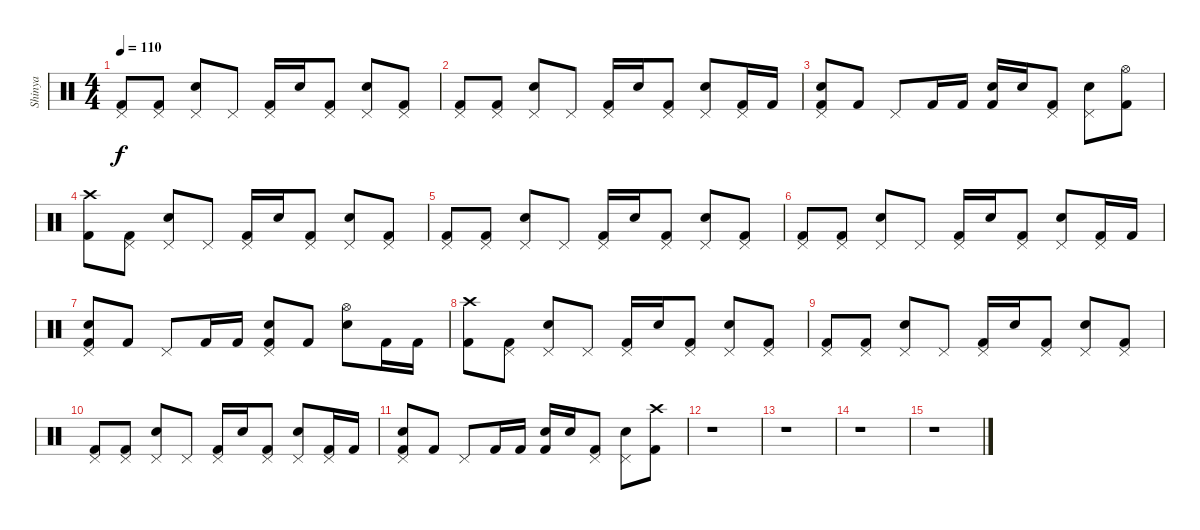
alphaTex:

\track ("Shinya" "Shinya") {instrument percussion}
\staff {score}
\articulation defaults
\ts (4 4)
\tempo 110
\clef neutral
\ks c
("Pedal Hi-Hat (hit)" "Kick (hit) 2").8{dy f} ("Pedal Hi-Hat (hit)" "Kick (hit) 2").8 ("Pedal Hi-Hat (hit)" "Electric Snare (hit)").8 "Pedal Hi-Hat (hit)".8 ("Pedal Hi-Hat (hit)" "Kick (hit) 2").16 "Electric Snare (hit)".16 ("Pedal Hi-Hat (hit)" "Kick (hit) 2").8 ("Pedal Hi-Hat (hit)" "Electric Snare (hit)").8 ("Pedal Hi-Hat (hit)" "Kick (hit) 2").8 |
("Pedal Hi-Hat (hit)" "Kick (hit) 2").8 ("Pedal Hi-Hat (hit)" "Kick (hit) 2").8 ("Pedal Hi-Hat (hit)" "Electric Snare (hit)").8 "Pedal Hi-Hat (hit)".8 ("Pedal Hi-Hat (hit)" "Kick (hit) 2").16 "Electric Snare (hit)".16 ("Pedal Hi-Hat (hit)" "Kick (hit) 2").8 ("Pedal Hi-Hat (hit)" "Electric Snare (hit)").8 ("Pedal Hi-Hat (hit)" "Kick (hit) 2").16 "Kick (hit) 2".16 |
("Pedal Hi-Hat (hit)" "Electric Snare (hit)" "Kick (hit) 2").8 "Kick (hit) 2".8 "Pedal Hi-Hat (hit)".8 "Kick (hit) 2".16 "Kick (hit) 2".16 ("Electric Snare (hit)" "Kick (hit) 2").16 "Electric Snare (hit)".16 ("Pedal Hi-Hat (hit)" "Kick (hit) 2").8 ("Pedal Hi-Hat (hit)" "Electric Snare (hit)").8 ("Hi-Hat (open)" "Kick (hit) 2").8 |
("Crash high (hit)" "Kick (hit) 2").8 ("Pedal Hi-Hat (hit)" "Kick (hit) 2").8 ("Pedal Hi-Hat (hit)" "Electric Snare (hit)").8 "Pedal Hi-Hat (hit)".8 ("Pedal Hi-Hat (hit)" "Kick (hit) 2").16 "Electric Snare (hit)".16 ("Pedal Hi-Hat (hit)" "Kick (hit) 2").8 ("Pedal Hi-Hat (hit)" "Electric Snare (hit)").8 ("Pedal Hi-Hat (hit)" "Kick (hit) 2").8 |
("Pedal Hi-Hat (hit)" "Kick (hit) 2").8 ("Pedal Hi-Hat (hit)" "Kick (hit) 2").8 ("Pedal Hi-Hat (hit)" "Electric Snare (hit)").8 "Pedal Hi-Hat (hit)".8 ("Pedal Hi-Hat (hit)" "Kick (hit) 2").16 "Electric Snare (hit)".16 ("Pedal Hi-Hat (hit)" "Kick (hit) 2").8 ("Pedal Hi-Hat (hit)" "Electric Snare (hit)").8 ("Pedal Hi-Hat (hit)" "Kick (hit) 2").8 |
("Pedal Hi-Hat (hit)" "Kick (hit) 2").8 ("Pedal Hi-Hat (hit)" "Kick (hit) 2").8 ("Pedal Hi-Hat (hit)" "Electric Snare (hit)").8 "Pedal Hi-Hat (hit)".8 ("Pedal Hi-Hat (hit)" "Kick (hit) 2").16 "Electric Snare (hit)".16 ("Pedal Hi-Hat (hit)" "Kick (hit) 2").8 ("Pedal Hi-Hat (hit)" "Electric Snare (hit)").8 ("Pedal Hi-Hat (hit)" "Kick (hit) 2").16 "Kick (hit) 2".16 |
("Pedal Hi-Hat (hit)" "Electric Snare (hit)" "Kick (hit) 2").8 "Kick (hit) 2".8 "Pedal Hi-Hat (hit)".8 "Kick (hit) 2".16 "Kick (hit) 2".16 ("Pedal Hi-Hat (hit)" "Electric Snare (hit)" "Kick (hit) 2").8 "Kick (hit) 2".8 ("Hi-Hat (open)" "Electric Snare (hit)").8 "Kick (hit) 2".16 "Kick (hit) 2".16 |
("Crash high (hit)" "Kick (hit) 2").8 ("Pedal Hi-Hat (hit)" "Kick (hit) 2").8 ("Pedal Hi-Hat (hit)" "Electric Snare (hit)").8 "Pedal Hi-Hat (hit)".8 ("Pedal Hi-Hat (hit)" "Kick (hit) 2").16 "Electric Snare (hit)".16 ("Pedal Hi-Hat (hit)" "Kick (hit) 2").8 ("Pedal Hi-Hat (hit)" "Electric Snare (hit)").8 ("Pedal Hi-Hat (hit)" "Kick (hit) 2").8 |
("Pedal Hi-Hat (hit)" "Kick (hit) 2").8 ("Pedal Hi-Hat (hit)" "Kick (hit) 2").8 ("Pedal Hi-Hat (hit)" "Electric Snare (hit)").8 "Pedal Hi-Hat (hit)".8 ("Pedal Hi-Hat (hit)" "Kick (hit) 2").16 "Electric Snare (hit)".16 ("Pedal Hi-Hat (hit)" "Kick (hit) 2").8 ("Pedal Hi-Hat (hit)" "Electric Snare (hit)").8 ("Pedal Hi-Hat (hit)" "Kick (hit) 2").8 |
("Pedal Hi-Hat (hit)" "Kick (hit) 2").8 ("Pedal Hi-Hat (hit)" "Kick (hit) 2").8 ("Pedal Hi-Hat (hit)" "Electric Snare (hit)").8 "Pedal Hi-Hat (hit)".8 ("Pedal Hi-Hat (hit)" "Kick (hit) 2").16 "Electric Snare (hit)".16 ("Pedal Hi-Hat (hit)" "Kick (hit) 2").8 ("Pedal Hi-Hat (hit)" "Electric Snare (hit)").8 ("Pedal Hi-Hat (hit)" "Kick (hit) 2").16 "Kick (hit) 2".16 |
("Pedal Hi-Hat (hit)" "Electric Snare (hit)" "Kick (hit) 2").8 "Kick (hit) 2".8 "Pedal Hi-Hat (hit)".8 "Kick (hit) 2".16 "Kick (hit) 2".16 ("Electric Snare (hit)" "Kick (hit) 2").16 "Electric Snare (hit)".16 ("Pedal Hi-Hat (hit)" "Kick (hit) 2").8 ("Pedal Hi-Hat (hit)" "Electric Snare (hit)").8 ("Crash high (hit)" "Kick (hit) 2").8 |
r.1 |
r.1 |
r.1 |
r.1
